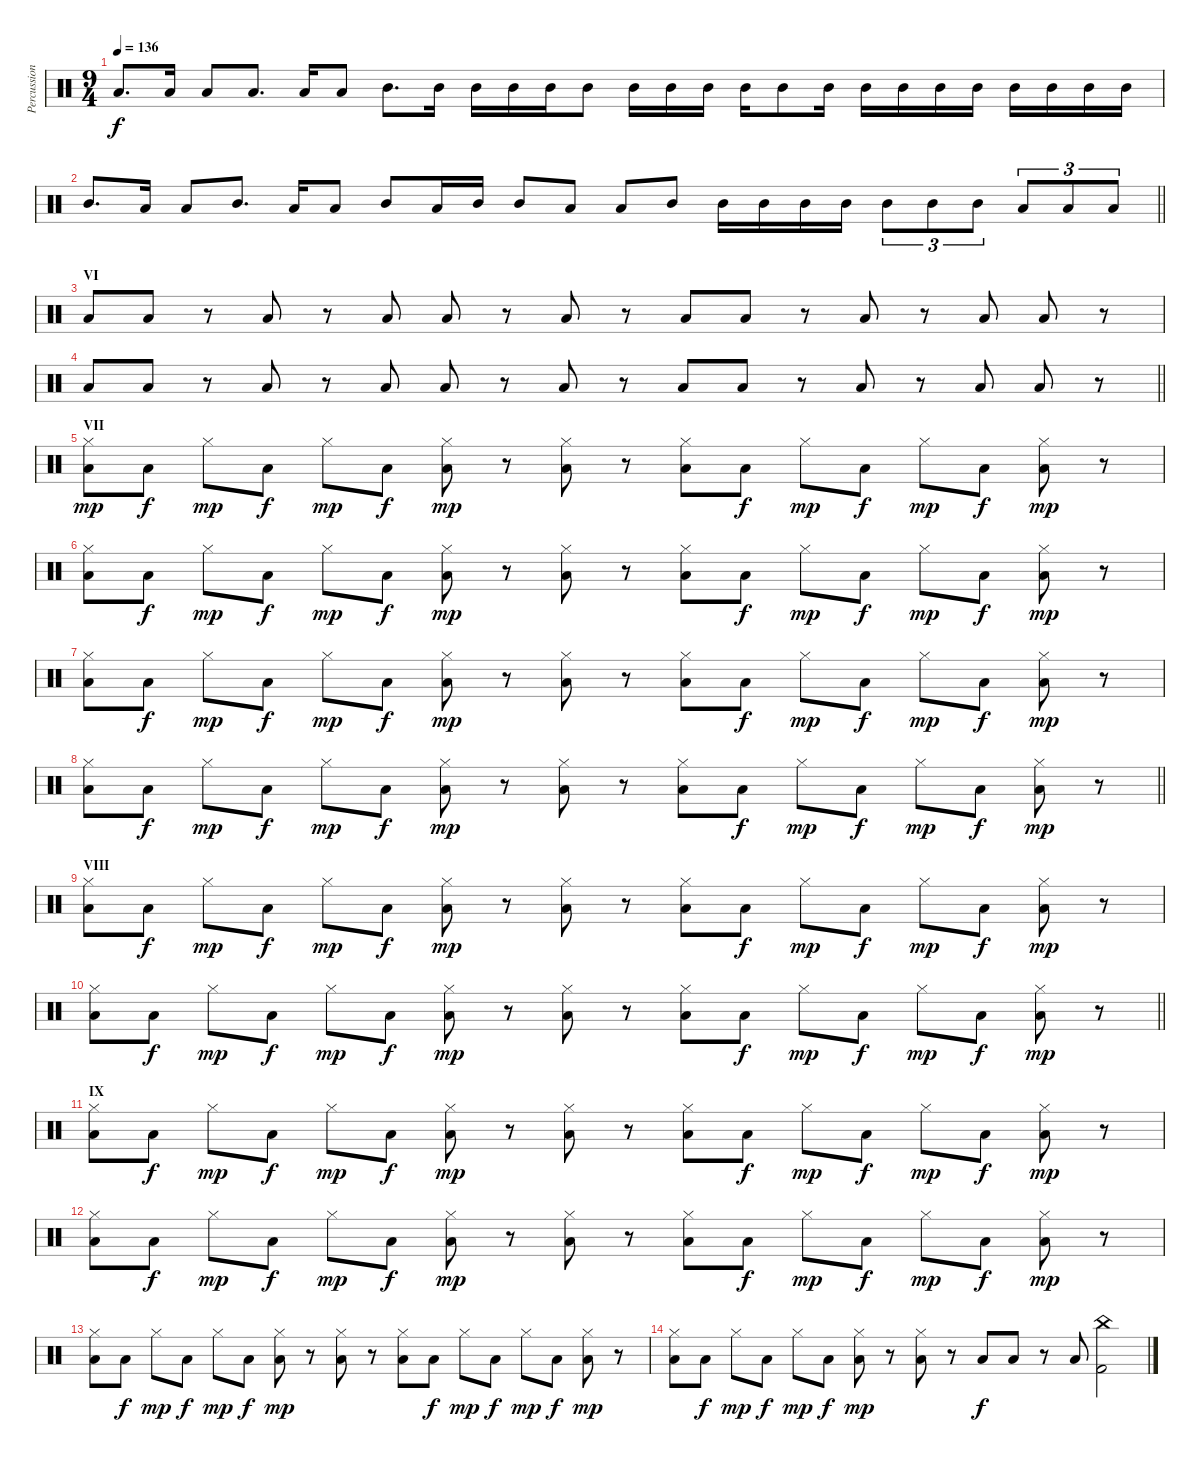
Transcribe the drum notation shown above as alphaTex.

\track ("Percussions" "Percussion") {instrument percussion}
\staff {score}
\articulation defaults
\ts (9 4)
\tempo 136
\clef neutral
\ks c "Low Floor Tom (hit)".8{d dy f} "Low Floor Tom (hit)".16 "Low Floor Tom (hit)".8 "Low Floor Tom (hit)".8{d} "Low Floor Tom (hit)".16 "Low Floor Tom (hit)".8 "Mid Tom (hit)".8{d} "Mid Tom (hit)".16 "Mid Tom (hit)".16 "Mid Tom (hit)".16 "Mid Tom (hit)".16 "Mid Tom (hit)".8 "Mid Tom (hit)".16 "Mid Tom (hit)".16 "Mid Tom (hit)".16 "Mid Tom (hit)".16 "Mid Tom (hit)".8 "Mid Tom (hit)".16 "Mid Tom (hit)".16 "Mid Tom (hit)".16 "Mid Tom (hit)".16 "Mid Tom (hit)".16 "Mid Tom (hit)".16 "Mid Tom (hit)".16 "Mid Tom (hit)".16 "Mid Tom (hit)".16
|
\barLineRight lightlight "Mid Tom (hit)".8{d} "Low Floor Tom (hit)".16 "Low Floor Tom (hit)".8 "Mid Tom (hit)".8{d} "Low Floor Tom (hit)".16 "Low Floor Tom (hit)".8 "Mid Tom (hit)".8 "Low Floor Tom (hit)".16 "Mid Tom (hit)".16 "Mid Tom (hit)".8 "Low Floor Tom (hit)".8 "Low Floor Tom (hit)".8 "Mid Tom (hit)".8 "Mid Tom (hit)".16 "Mid Tom (hit)".16 "Mid Tom (hit)".16 "Mid Tom (hit)".16 "Mid Tom (hit)".8{tu (3 2)} "Mid Tom (hit)".8{tu (3 2)} "Mid Tom (hit)".8{tu (3 2)} "Low Tom (hit)".8{tu (3 2)} "Low Tom (hit)".8{tu (3 2)} "Low Tom (hit)".8{tu (3 2)}
|
\section ("" "VI")
"Low Floor Tom (hit)".8 "Low Floor Tom (hit)".8 r.8 "Low Floor Tom (hit)".8 r.8 "Low Floor Tom (hit)".8 "Low Floor Tom (hit)".8 r.8 "Low Floor Tom (hit)".8 r.8 "Low Floor Tom (hit)".8 "Low Floor Tom (hit)".8 r.8 "Low Floor Tom (hit)".8 r.8 "Low Floor Tom (hit)".8 "Low Floor Tom (hit)".8 r.8 |
\barLineRight lightlight "Low Floor Tom (hit)".8 "Low Floor Tom (hit)".8
r.8 "Low Floor Tom (hit)".8 r.8 "Low Floor Tom (hit)".8 "Low Floor Tom (hit)".8 r.8 "Low Floor Tom (hit)".8 r.8 "Low Floor Tom (hit)".8 "Low Floor Tom (hit)".8 r.8 "Low Floor Tom (hit)".8 r.8 "Low Floor Tom (hit)".8 "Low Floor Tom (hit)".8 r.8 |
\section ("" "VII")
("Hi-Hat (closed)" "Low Tom (hit)").8{dy mp} "Low Tom (hit)".8{dy f} "Hi-Hat (closed)".8{dy mp} "Low Tom (hit)".8{dy f} "Hi-Hat (closed)".8{dy mp} "Low Tom (hit)".8{dy f} ("Hi-Hat (closed)" "Low Tom (hit)").8{dy mp} r.8 ("Hi-Hat (closed)" "Low Tom (hit)").8 r.8 ("Hi-Hat (closed)" "Low Tom (hit)").8 "Low Tom (hit)".8{dy f} "Hi-Hat (closed)".8{dy mp} "Low Tom (hit)".8{dy f} "Hi-Hat (closed)".8{dy mp} "Low Tom (hit)".8{dy f} ("Hi-Hat (closed)" "Low Tom (hit)").8{dy mp} r.8 |
("Hi-Hat (closed)" "Low Tom (hit)").8 "Low Tom (hit)".8{dy f} "Hi-Hat (closed)".8{dy mp} "Low Tom (hit)".8{dy f} "Hi-Hat (closed)".8{dy mp} "Low Tom (hit)".8{dy f} ("Hi-Hat (closed)" "Low Tom (hit)").8{dy mp} r.8 ("Hi-Hat (closed)" "Low Tom (hit)").8 r.8 ("Hi-Hat (closed)" "Low Tom (hit)").8 "Low Tom (hit)".8{dy f} "Hi-Hat (closed)".8{dy mp} "Low Tom (hit)".8{dy f} "Hi-Hat (closed)".8{dy mp} "Low Tom (hit)".8{dy f} ("Hi-Hat (closed)" "Low Tom (hit)").8{dy mp} r.8 |
("Hi-Hat (closed)" "Low Tom (hit)").8 "Low Tom (hit)".8{dy f} "Hi-Hat (closed)".8{dy mp} "Low Tom (hit)".8{dy f} "Hi-Hat (closed)".8{dy mp} "Low Tom (hit)".8{dy f} ("Hi-Hat (closed)" "Low Tom (hit)").8{dy mp} r.8 ("Hi-Hat (closed)" "Low Tom (hit)").8 r.8 ("Hi-Hat (closed)" "Low Tom (hit)").8 "Low Tom (hit)".8{dy f} "Hi-Hat (closed)".8{dy mp} "Low Tom (hit)".8{dy f} "Hi-Hat (closed)".8{dy mp} "Low Tom (hit)".8{dy f} ("Hi-Hat (closed)" "Low Tom (hit)").8{dy mp} r.8 |
\barLineRight lightlight
("Hi-Hat (closed)" "Low Tom (hit)").8 "Low Tom (hit)".8{dy f} "Hi-Hat (closed)".8{dy mp} "Low Tom (hit)".8{dy f} "Hi-Hat (closed)".8{dy mp} "Low Tom (hit)".8{dy f} ("Hi-Hat (closed)" "Low Tom (hit)").8{dy mp} r.8 ("Hi-Hat (closed)" "Low Tom (hit)").8 r.8 ("Hi-Hat (closed)" "Low Tom (hit)").8 "Low Tom (hit)".8{dy f} "Hi-Hat (closed)".8{dy mp} "Low Tom (hit)".8{dy f} "Hi-Hat (closed)".8{dy mp} "Low Tom (hit)".8{dy f} ("Hi-Hat (closed)" "Low Tom (hit)").8{dy mp} r.8 |
\section ("" "VIII")
("Hi-Hat (closed)" "Low Tom (hit)").8 "Low Tom (hit)".8{dy f} "Hi-Hat (closed)".8{dy mp} "Low Tom (hit)".8{dy f} "Hi-Hat (closed)".8{dy mp} "Low Tom (hit)".8{dy f} ("Hi-Hat (closed)" "Low Tom (hit)").8{dy mp} r.8 ("Hi-Hat (closed)" "Low Tom (hit)").8 r.8 ("Hi-Hat (closed)" "Low Tom (hit)").8 "Low Tom (hit)".8{dy f} "Hi-Hat (closed)".8{dy mp} "Low Tom (hit)".8{dy f} "Hi-Hat (closed)".8{dy mp} "Low Tom (hit)".8{dy f} ("Hi-Hat (closed)" "Low Tom (hit)").8{dy mp} r.8 |
\barLineRight lightlight
("Hi-Hat (closed)" "Low Tom (hit)").8 "Low Tom (hit)".8{dy f} "Hi-Hat (closed)".8{dy mp} "Low Tom (hit)".8{dy f} "Hi-Hat (closed)".8{dy mp} "Low Tom (hit)".8{dy f} ("Hi-Hat (closed)" "Low Tom (hit)").8{dy mp} r.8 ("Hi-Hat (closed)" "Low Tom (hit)").8 r.8 ("Hi-Hat (closed)" "Low Tom (hit)").8 "Low Tom (hit)".8{dy f} "Hi-Hat (closed)".8{dy mp} "Low Tom (hit)".8{dy f} "Hi-Hat (closed)".8{dy mp} "Low Tom (hit)".8{dy f} ("Hi-Hat (closed)" "Low Tom (hit)").8{dy mp} r.8 |
\section ("" "IX")
("Hi-Hat (closed)" "Low Tom (hit)").8 "Low Tom (hit)".8{dy f} "Hi-Hat (closed)".8{dy mp} "Low Tom (hit)".8{dy f} "Hi-Hat (closed)".8{dy mp} "Low Tom (hit)".8{dy f} ("Hi-Hat (closed)" "Low Tom (hit)").8{dy mp} r.8 ("Hi-Hat (closed)" "Low Tom (hit)").8 r.8 ("Hi-Hat (closed)" "Low Tom (hit)").8 "Low Tom (hit)".8{dy f} "Hi-Hat (closed)".8{dy mp} "Low Tom (hit)".8{dy f} "Hi-Hat (closed)".8{dy mp} "Low Tom (hit)".8{dy f} ("Hi-Hat (closed)" "Low Tom (hit)").8{dy mp} r.8 |
("Hi-Hat (closed)" "Low Tom (hit)").8 "Low Tom (hit)".8{dy f} "Hi-Hat (closed)".8{dy mp} "Low Tom (hit)".8{dy f} "Hi-Hat (closed)".8{dy mp} "Low Tom (hit)".8{dy f} ("Hi-Hat (closed)" "Low Tom (hit)").8{dy mp} r.8 ("Hi-Hat (closed)" "Low Tom (hit)").8 r.8 ("Hi-Hat (closed)" "Low Tom (hit)").8 "Low Tom (hit)".8{dy f} "Hi-Hat (closed)".8{dy mp} "Low Tom (hit)".8{dy f} "Hi-Hat (closed)".8{dy mp} "Low Tom (hit)".8{dy f} ("Hi-Hat (closed)" "Low Tom (hit)").8{dy mp} r.8 |
("Hi-Hat (closed)" "Low Tom (hit)").8 "Low Tom (hit)".8{dy f} "Hi-Hat (closed)".8{dy mp} "Low Tom (hit)".8{dy f} "Hi-Hat (closed)".8{dy mp} "Low Tom (hit)".8{dy f} ("Hi-Hat (closed)" "Low Tom (hit)").8{dy mp} r.8 ("Hi-Hat (closed)" "Low Tom (hit)").8 r.8 ("Hi-Hat (closed)" "Low Tom (hit)").8 "Low Tom (hit)".8{dy f} "Hi-Hat (closed)".8{dy mp} "Low Tom (hit)".8{dy f} "Hi-Hat (closed)".8{dy mp} "Low Tom (hit)".8{dy f} ("Hi-Hat (closed)" "Low Tom (hit)").8{dy mp} r.8 |
("Hi-Hat (closed)" "Low Tom (hit)").8 "Low Tom (hit)".8{dy f} "Hi-Hat (closed)".8{dy mp} "Low Tom (hit)".8{dy f} "Hi-Hat (closed)".8{dy mp} "Low Tom (hit)".8{dy f} ("Hi-Hat (closed)" "Low Tom (hit)").8{dy mp} r.8 ("Hi-Hat (closed)" "Low Tom (hit)").8 r.8 "Low Tom (hit)".8{dy f} "Low Tom (hit)".8 r.8 "Low Tom (hit)".8 ("China (hit)" "Kick (hit) 2").2
